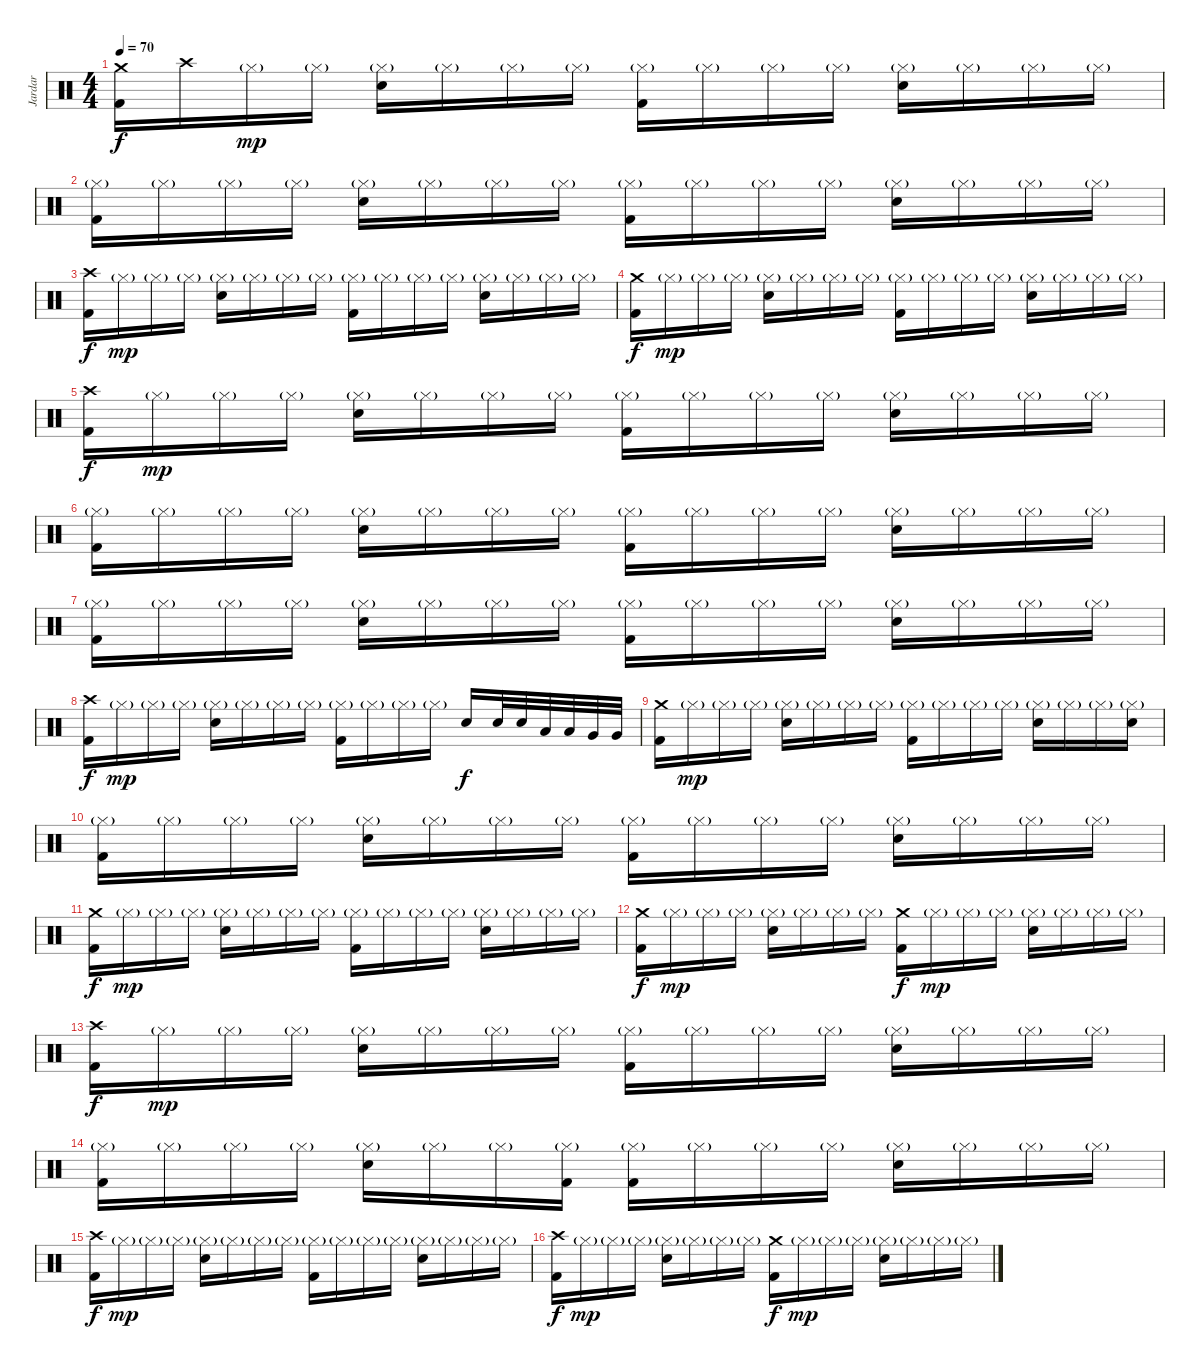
\track ("Jardar" "Jardar") {instrument percussion}
\staff {score}
\articulation defaults
\ts (4 4)
\tempo 70
\clef neutral
\ks c
("Crash medium (hit)" "Kick (hit) 2").16{dy f} "Crash high (hit)".16 "Hi-Hat (closed)"{g}.16{dy mp} "Hi-Hat (closed)"{g}.16 ("Hi-Hat (closed)"{g} "Electric Snare (hit)").16 "Hi-Hat (closed)"{g}.16 "Hi-Hat (closed)"{g}.16 "Hi-Hat (closed)"{g}.16 ("Hi-Hat (closed)"{g} "Kick (hit) 2").16 "Hi-Hat (closed)"{g}.16 "Hi-Hat (closed)"{g}.16 "Hi-Hat (closed)"{g}.16 ("Hi-Hat (closed)"{g} "Electric Snare (hit)").16 "Hi-Hat (closed)"{g}.16 "Hi-Hat (closed)"{g}.16 "Hi-Hat (closed)"{g}.16 |
("Hi-Hat (closed)"{g} "Kick (hit) 2").16 "Hi-Hat (closed)"{g}.16 "Hi-Hat (closed)"{g}.16 "Hi-Hat (closed)"{g}.16 ("Hi-Hat (closed)"{g} "Electric Snare (hit)").16 "Hi-Hat (closed)"{g}.16 "Hi-Hat (closed)"{g}.16 "Hi-Hat (closed)"{g}.16 ("Hi-Hat (closed)"{g} "Kick (hit) 2").16 "Hi-Hat (closed)"{g}.16 "Hi-Hat (closed)"{g}.16 "Hi-Hat (closed)"{g}.16 ("Hi-Hat (closed)"{g} "Electric Snare (hit)").16 "Hi-Hat (closed)"{g}.16 "Hi-Hat (closed)"{g}.16 "Hi-Hat (closed)"{g}.16 |
("Crash high (hit)" "Kick (hit) 2").16{dy f} "Hi-Hat (closed)"{g}.16{dy mp} "Hi-Hat (closed)"{g}.16 "Hi-Hat (closed)"{g}.16 ("Hi-Hat (closed)"{g} "Electric Snare (hit)").16 "Hi-Hat (closed)"{g}.16 "Hi-Hat (closed)"{g}.16 "Hi-Hat (closed)"{g}.16 ("Hi-Hat (closed)"{g} "Kick (hit) 2").16 "Hi-Hat (closed)"{g}.16 "Hi-Hat (closed)"{g}.16 "Hi-Hat (closed)"{g}.16 ("Hi-Hat (closed)"{g} "Electric Snare (hit)").16 "Hi-Hat (closed)"{g}.16 "Hi-Hat (closed)"{g}.16 "Hi-Hat (closed)"{g}.16 |
("Crash medium (hit)" "Kick (hit) 2").16{dy f} "Hi-Hat (closed)"{g}.16{dy mp} "Hi-Hat (closed)"{g}.16 "Hi-Hat (closed)"{g}.16 ("Hi-Hat (closed)"{g} "Electric Snare (hit)").16 "Hi-Hat (closed)"{g}.16 "Hi-Hat (closed)"{g}.16 "Hi-Hat (closed)"{g}.16 ("Hi-Hat (closed)"{g} "Kick (hit) 2").16 "Hi-Hat (closed)"{g}.16 "Hi-Hat (closed)"{g}.16 "Hi-Hat (closed)"{g}.16 ("Hi-Hat (closed)"{g} "Electric Snare (hit)").16 "Hi-Hat (closed)"{g}.16 "Hi-Hat (closed)"{g}.16 "Hi-Hat (closed)"{g}.16 |
("Crash high (hit)" "Kick (hit) 2").16{dy f} "Hi-Hat (closed)"{g}.16{dy mp} "Hi-Hat (closed)"{g}.16 "Hi-Hat (closed)"{g}.16 ("Hi-Hat (closed)"{g} "Electric Snare (hit)").16 "Hi-Hat (closed)"{g}.16 "Hi-Hat (closed)"{g}.16 "Hi-Hat (closed)"{g}.16 ("Hi-Hat (closed)"{g} "Kick (hit) 2").16 "Hi-Hat (closed)"{g}.16 "Hi-Hat (closed)"{g}.16 "Hi-Hat (closed)"{g}.16 ("Hi-Hat (closed)"{g} "Electric Snare (hit)").16 "Hi-Hat (closed)"{g}.16 "Hi-Hat (closed)"{g}.16 "Hi-Hat (closed)"{g}.16 |
("Hi-Hat (closed)"{g} "Kick (hit) 2").16 "Hi-Hat (closed)"{g}.16 "Hi-Hat (closed)"{g}.16 "Hi-Hat (closed)"{g}.16 ("Hi-Hat (closed)"{g} "Electric Snare (hit)").16 "Hi-Hat (closed)"{g}.16 "Hi-Hat (closed)"{g}.16 "Hi-Hat (closed)"{g}.16 ("Hi-Hat (closed)"{g} "Kick (hit) 2").16 "Hi-Hat (closed)"{g}.16 "Hi-Hat (closed)"{g}.16 "Hi-Hat (closed)"{g}.16 ("Hi-Hat (closed)"{g} "Electric Snare (hit)").16 "Hi-Hat (closed)"{g}.16 "Hi-Hat (closed)"{g}.16 "Hi-Hat (closed)"{g}.16 |
("Hi-Hat (closed)"{g} "Kick (hit) 2").16 "Hi-Hat (closed)"{g}.16 "Hi-Hat (closed)"{g}.16 "Hi-Hat (closed)"{g}.16 ("Hi-Hat (closed)"{g} "Electric Snare (hit)").16 "Hi-Hat (closed)"{g}.16 "Hi-Hat (closed)"{g}.16 "Hi-Hat (closed)"{g}.16 ("Hi-Hat (closed)"{g} "Kick (hit) 2").16 "Hi-Hat (closed)"{g}.16 "Hi-Hat (closed)"{g}.16 "Hi-Hat (closed)"{g}.16 ("Hi-Hat (closed)"{g} "Electric Snare (hit)").16 "Hi-Hat (closed)"{g}.16 "Hi-Hat (closed)"{g}.16 "Hi-Hat (closed)"{g}.16 |
("Crash high (hit)" "Kick (hit) 2").16{dy f} "Hi-Hat (closed)"{g}.16{dy mp} "Hi-Hat (closed)"{g}.16 "Hi-Hat (closed)"{g}.16 ("Hi-Hat (closed)"{g} "Electric Snare (hit)").16 "Hi-Hat (closed)"{g}.16 "Hi-Hat (closed)"{g}.16 "Hi-Hat (closed)"{g}.16 ("Hi-Hat (closed)"{g} "Kick (hit) 2").16 "Hi-Hat (closed)"{g}.16 "Hi-Hat (closed)"{g}.16 "Hi-Hat (closed)"{g}.16 "Electric Snare (hit)".16{dy f} "Electric Snare (hit)".32 "Electric Snare (hit)".32 "Low Tom (hit)".32 "Low Tom (hit)".32 "Very Low Tom (hit)".32 "Very Low Tom (hit)".32 |
("Crash medium (hit)" "Kick (hit) 2").16 "Hi-Hat (closed)"{g}.16{dy mp} "Hi-Hat (closed)"{g}.16 "Hi-Hat (closed)"{g}.16 ("Hi-Hat (closed)"{g} "Electric Snare (hit)").16 "Hi-Hat (closed)"{g}.16 "Hi-Hat (closed)"{g}.16 "Hi-Hat (closed)"{g}.16 ("Hi-Hat (closed)"{g} "Kick (hit) 2").16 "Hi-Hat (closed)"{g}.16 "Hi-Hat (closed)"{g}.16 "Hi-Hat (closed)"{g}.16 ("Hi-Hat (closed)"{g} "Electric Snare (hit)").16 "Hi-Hat (closed)"{g}.16 "Hi-Hat (closed)"{g}.16 ("Hi-Hat (closed)"{g} "Electric Snare (hit)").16 |
("Hi-Hat (closed)"{g} "Kick (hit) 2").16 "Hi-Hat (closed)"{g}.16 "Hi-Hat (closed)"{g}.16 "Hi-Hat (closed)"{g}.16 ("Hi-Hat (closed)"{g} "Electric Snare (hit)").16 "Hi-Hat (closed)"{g}.16 "Hi-Hat (closed)"{g}.16 "Hi-Hat (closed)"{g}.16 ("Hi-Hat (closed)"{g} "Kick (hit) 2").16 "Hi-Hat (closed)"{g}.16 "Hi-Hat (closed)"{g}.16 "Hi-Hat (closed)"{g}.16 ("Hi-Hat (closed)"{g} "Electric Snare (hit)").16 "Hi-Hat (closed)"{g}.16 "Hi-Hat (closed)"{g}.16 "Hi-Hat (closed)"{g}.16 |
("Crash medium (hit)" "Kick (hit) 2").16{dy f} "Hi-Hat (closed)"{g}.16{dy mp} "Hi-Hat (closed)"{g}.16 "Hi-Hat (closed)"{g}.16 ("Hi-Hat (closed)"{g} "Electric Snare (hit)").16 "Hi-Hat (closed)"{g}.16 "Hi-Hat (closed)"{g}.16 "Hi-Hat (closed)"{g}.16 ("Hi-Hat (closed)"{g} "Kick (hit) 2").16 "Hi-Hat (closed)"{g}.16 "Hi-Hat (closed)"{g}.16 "Hi-Hat (closed)"{g}.16 ("Hi-Hat (closed)"{g} "Electric Snare (hit)").16 "Hi-Hat (closed)"{g}.16 "Hi-Hat (closed)"{g}.16 "Hi-Hat (closed)"{g}.16 |
("Crash medium (hit)" "Kick (hit) 2").16{dy f} "Hi-Hat (closed)"{g}.16{dy mp} "Hi-Hat (closed)"{g}.16 "Hi-Hat (closed)"{g}.16 ("Hi-Hat (closed)"{g} "Electric Snare (hit)").16 "Hi-Hat (closed)"{g}.16 "Hi-Hat (closed)"{g}.16 "Hi-Hat (closed)"{g}.16 ("Crash medium (hit)" "Kick (hit) 2").16{dy f} "Hi-Hat (closed)"{g}.16{dy mp} "Hi-Hat (closed)"{g}.16 "Hi-Hat (closed)"{g}.16 ("Hi-Hat (closed)"{g} "Electric Snare (hit)").16 "Hi-Hat (closed)"{g}.16 "Hi-Hat (closed)"{g}.16 "Hi-Hat (closed)"{g}.16 |
("Crash high (hit)" "Kick (hit) 2").16{dy f} "Hi-Hat (closed)"{g}.16{dy mp} "Hi-Hat (closed)"{g}.16 "Hi-Hat (closed)"{g}.16 ("Hi-Hat (closed)"{g} "Electric Snare (hit)").16 "Hi-Hat (closed)"{g}.16 "Hi-Hat (closed)"{g}.16 "Hi-Hat (closed)"{g}.16 ("Hi-Hat (closed)"{g} "Kick (hit) 2").16 "Hi-Hat (closed)"{g}.16 "Hi-Hat (closed)"{g}.16 "Hi-Hat (closed)"{g}.16 ("Hi-Hat (closed)"{g} "Electric Snare (hit)").16 "Hi-Hat (closed)"{g}.16 "Hi-Hat (closed)"{g}.16 "Hi-Hat (closed)"{g}.16 |
("Hi-Hat (closed)"{g} "Kick (hit) 2").16 "Hi-Hat (closed)"{g}.16 "Hi-Hat (closed)"{g}.16 "Hi-Hat (closed)"{g}.16 ("Hi-Hat (closed)"{g} "Electric Snare (hit)").16 "Hi-Hat (closed)"{g}.16 "Hi-Hat (closed)"{g}.16 ("Hi-Hat (closed)"{g} "Kick (hit) 2").16 ("Hi-Hat (closed)"{g} "Kick (hit) 2").16 "Hi-Hat (closed)"{g}.16 "Hi-Hat (closed)"{g}.16 "Hi-Hat (closed)"{g}.16 ("Hi-Hat (closed)"{g} "Electric Snare (hit)").16 "Hi-Hat (closed)"{g}.16 "Hi-Hat (closed)"{g}.16 "Hi-Hat (closed)"{g}.16 |
("Crash high (hit)" "Kick (hit) 2").16{dy f} "Hi-Hat (closed)"{g}.16{dy mp} "Hi-Hat (closed)"{g}.16 "Hi-Hat (closed)"{g}.16 ("Hi-Hat (closed)"{g} "Electric Snare (hit)").16 "Hi-Hat (closed)"{g}.16 "Hi-Hat (closed)"{g}.16 "Hi-Hat (closed)"{g}.16 ("Hi-Hat (closed)"{g} "Kick (hit) 2").16 "Hi-Hat (closed)"{g}.16 "Hi-Hat (closed)"{g}.16 "Hi-Hat (closed)"{g}.16 ("Hi-Hat (closed)"{g} "Electric Snare (hit)").16 "Hi-Hat (closed)"{g}.16 "Hi-Hat (closed)"{g}.16 "Hi-Hat (closed)"{g}.16 |
("Crash high (hit)" "Kick (hit) 2").16{dy f} "Hi-Hat (closed)"{g}.16{dy mp} "Hi-Hat (closed)"{g}.16 "Hi-Hat (closed)"{g}.16 ("Hi-Hat (closed)"{g} "Electric Snare (hit)").16 "Hi-Hat (closed)"{g}.16 "Hi-Hat (closed)"{g}.16 "Hi-Hat (closed)"{g}.16 ("Crash medium (hit)" "Kick (hit) 2").16{dy f} "Hi-Hat (closed)"{g}.16{dy mp} "Hi-Hat (closed)"{g}.16 "Hi-Hat (closed)"{g}.16 ("Hi-Hat (closed)"{g} "Electric Snare (hit)").16 "Hi-Hat (closed)"{g}.16 "Hi-Hat (closed)"{g}.16 "Hi-Hat (closed)"{g}.16
